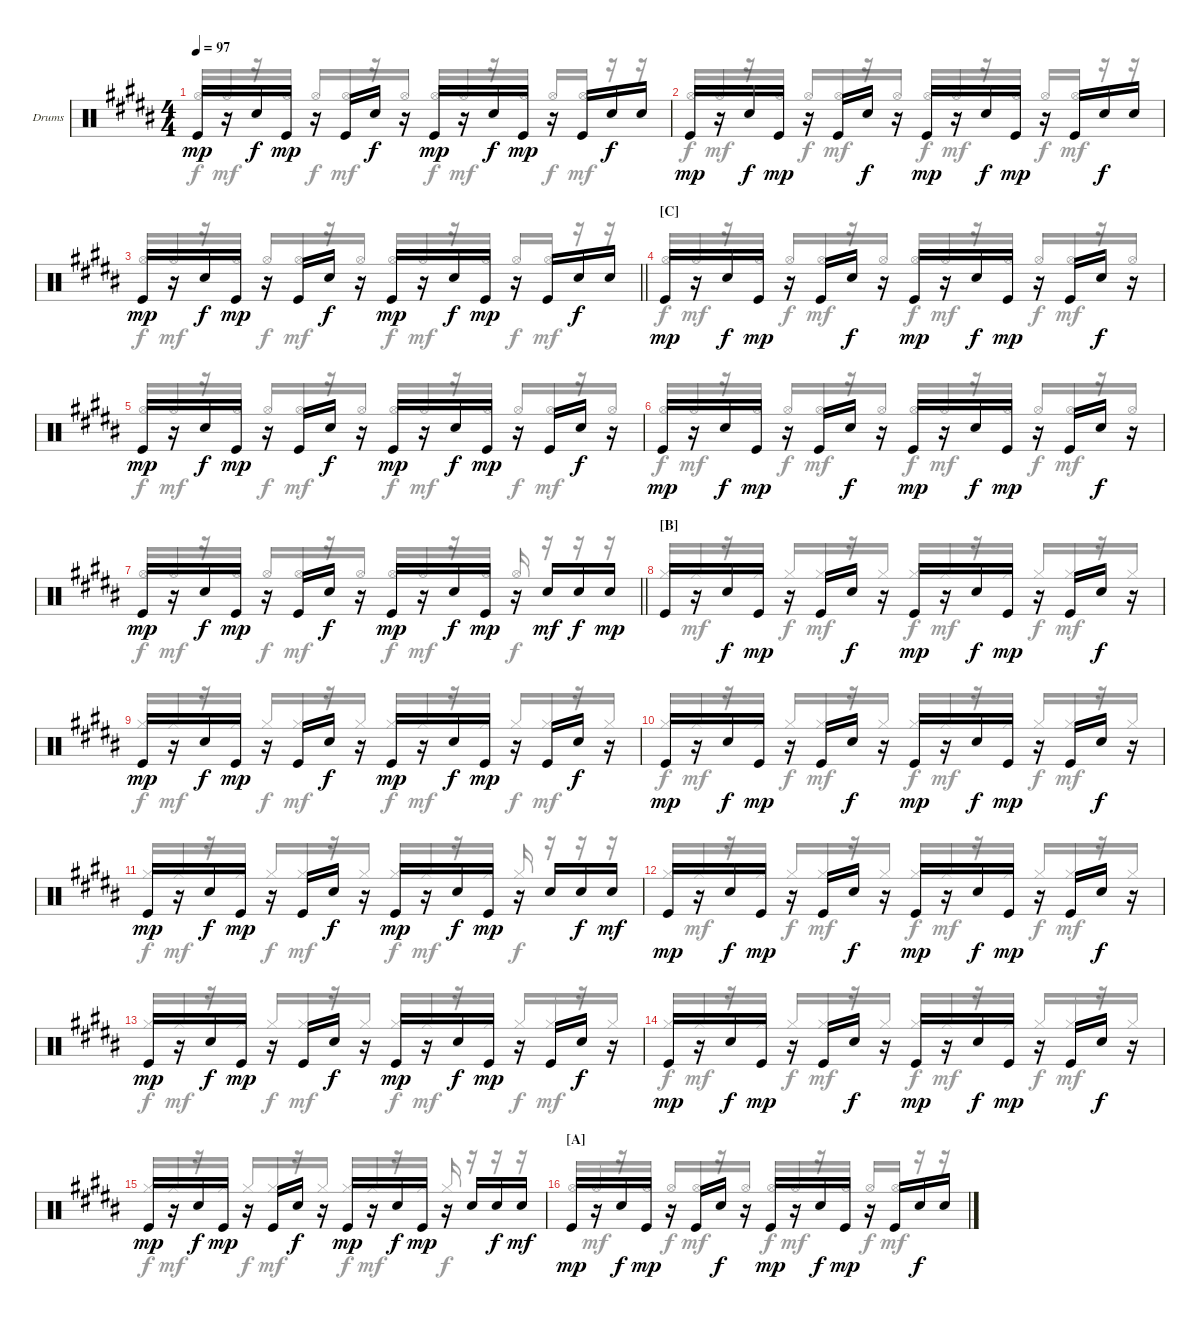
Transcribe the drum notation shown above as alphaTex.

\bracketExtendMode groupsimilarinstruments
\firstSystemTrackNameOrientation horizontal
\otherSystemsTrackNameOrientation horizontal
\track ("Fabrizio Moretti" "Drums") {instrument percussion}
\staff {score}
\articulation defaults
\voice
\ts (4 4)
\tempo 97
\clef neutral
\ks b "Kick (hit)".16{dy mp}
r.16 "Snare (hit) 2".16{dy f} "Kick (hit)".16{dy mp} r.16 "Kick (hit)".16 "Snare (hit) 2".16{dy f} r.16 "Kick (hit)".16{dy mp} r.16 "Snare (hit) 2".16{dy f} "Kick (hit)".16{dy mp} r.16 "Kick (hit)".16 "Snare (hit) 2".16{dy f} "Snare (hit) 2".16 |
"Kick (hit)".16{dy mp} r.16 "Snare (hit) 2".16{dy f} "Kick (hit)".16{dy mp} r.16 "Kick (hit)".16 "Snare (hit) 2".16{dy f} r.16 "Kick (hit)".16{dy mp} r.16 "Snare (hit) 2".16{dy f} "Kick (hit)".16{dy mp} r.16 "Kick (hit)".16 "Snare (hit) 2".16{dy f} "Snare (hit) 2".16 |
\barLineRight lightlight "Kick (hit)".16{dy mp}
r.16 "Snare (hit) 2".16{dy f} "Kick (hit)".16{dy mp} r.16 "Kick (hit)".16 "Snare (hit) 2".16{dy f} r.16 "Kick (hit)".16{dy mp} r.16 "Snare (hit) 2".16{dy f} "Kick (hit)".16{dy mp} r.16 "Kick (hit)".16 "Snare (hit) 2".16{dy f} "Snare (hit) 2".16 |
\section ("C" "")
"Kick (hit)".16{dy mp} r.16 "Snare (hit) 2".16{dy f} "Kick (hit)".16{dy mp} r.16 "Kick (hit)".16 "Snare (hit) 2".16{dy f} r.16 "Kick (hit)".16{dy mp} r.16 "Snare (hit) 2".16{dy f} "Kick (hit)".16{dy mp} r.16 "Kick (hit)".16 "Snare (hit) 2".16{dy f} r.16 |
"Kick (hit)".16{dy mp} r.16 "Snare (hit) 2".16{dy f} "Kick (hit)".16{dy mp} r.16 "Kick (hit)".16 "Snare (hit) 2".16{dy f} r.16 "Kick (hit)".16{dy mp} r.16 "Snare (hit) 2".16{dy f} "Kick (hit)".16{dy mp} r.16 "Kick (hit)".16 "Snare (hit) 2".16{dy f} r.16 |
"Kick (hit)".16{dy mp} r.16 "Snare (hit) 2".16{dy f} "Kick (hit)".16{dy mp} r.16 "Kick (hit)".16 "Snare (hit) 2".16{dy f} r.16 "Kick (hit)".16{dy mp} r.16 "Snare (hit) 2".16{dy f} "Kick (hit)".16{dy mp} r.16 "Kick (hit)".16 "Snare (hit) 2".16{dy f} r.16 |
\barLineRight lightlight "Kick (hit)".16{dy mp}
r.16 "Snare (hit) 2".16{dy f} "Kick (hit)".16{dy mp} r.16 "Kick (hit)".16 "Snare (hit) 2".16{dy f} r.16 "Kick (hit)".16{dy mp} r.16 "Snare (hit) 2".16{dy f} "Kick (hit)".16{dy mp} r.16 "Snare (hit) 2".16{dy mf} "Snare (hit) 2".16{dy f} "Snare (hit) 2".16{dy mp} |
\section ("B" "")
"Kick (hit)".16 r.16 "Snare (hit) 2".16{dy f} "Kick (hit)".16{dy mp} r.16 "Kick (hit)".16 "Snare (hit) 2".16{dy f} r.16 "Kick (hit)".16{dy mp} r.16 "Snare (hit) 2".16{dy f} "Kick (hit)".16{dy mp} r.16 "Kick (hit)".16 "Snare (hit) 2".16{dy f} r.16 |
"Kick (hit)".16{dy mp} r.16 "Snare (hit) 2".16{dy f} "Kick (hit)".16{dy mp} r.16 "Kick (hit)".16 "Snare (hit) 2".16{dy f} r.16 "Kick (hit)".16{dy mp} r.16 "Snare (hit) 2".16{dy f} "Kick (hit)".16{dy mp} r.16 "Kick (hit)".16 "Snare (hit) 2".16{dy f} r.16 |
"Kick (hit)".16{dy mp} r.16 "Snare (hit) 2".16{dy f} "Kick (hit)".16{dy mp} r.16 "Kick (hit)".16 "Snare (hit) 2".16{dy f} r.16 "Kick (hit)".16{dy mp} r.16 "Snare (hit) 2".16{dy f} "Kick (hit)".16{dy mp} r.16 "Kick (hit)".16 "Snare (hit) 2".16{dy f} r.16 |
"Kick (hit)".16{dy mp} r.16 "Snare (hit) 2".16{dy f} "Kick (hit)".16{dy mp} r.16 "Kick (hit)".16 "Snare (hit) 2".16{dy f} r.16 "Kick (hit)".16{dy mp} r.16 "Snare (hit) 2".16{dy f} "Kick (hit)".16{dy mp} r.16 "Snare (hit) 2".16 "Snare (hit) 2".16{dy f} "Snare (hit) 2".16{dy mf} |
"Kick (hit)".16{dy mp} r.16 "Snare (hit) 2".16{dy f} "Kick (hit)".16{dy mp} r.16 "Kick (hit)".16 "Snare (hit) 2".16{dy f} r.16 "Kick (hit)".16{dy mp} r.16 "Snare (hit) 2".16{dy f} "Kick (hit)".16{dy mp} r.16 "Kick (hit)".16 "Snare (hit) 2".16{dy f} r.16 |
"Kick (hit)".16{dy mp} r.16 "Snare (hit) 2".16{dy f} "Kick (hit)".16{dy mp} r.16 "Kick (hit)".16 "Snare (hit) 2".16{dy f} r.16 "Kick (hit)".16{dy mp} r.16 "Snare (hit) 2".16{dy f} "Kick (hit)".16{dy mp} r.16 "Kick (hit)".16 "Snare (hit) 2".16{dy f} r.16 |
"Kick (hit)".16{dy mp} r.16 "Snare (hit) 2".16{dy f} "Kick (hit)".16{dy mp} r.16 "Kick (hit)".16 "Snare (hit) 2".16{dy f} r.16 "Kick (hit)".16{dy mp} r.16 "Snare (hit) 2".16{dy f} "Kick (hit)".16{dy mp} r.16 "Kick (hit)".16 "Snare (hit) 2".16{dy f} r.16 |
"Kick (hit)".16{dy mp} r.16 "Snare (hit) 2".16{dy f} "Kick (hit)".16{dy mp} r.16 "Kick (hit)".16 "Snare (hit) 2".16{dy f} r.16 "Kick (hit)".16{dy mp} r.16 "Snare (hit) 2".16{dy f} "Kick (hit)".16{dy mp} r.16 "Snare (hit) 2".16 "Snare (hit) 2".16{dy f} "Snare (hit) 2".16{dy mf} |
\section ("A" "")
"Kick (hit)".16{dy mp} r.16 "Snare (hit) 2".16{dy f} "Kick (hit)".16{dy mp} r.16 "Kick (hit)".16 "Snare (hit) 2".16{dy f} r.16 "Kick (hit)".16{dy mp} r.16 "Snare (hit) 2".16{dy f} "Kick (hit)".16{dy mp} r.16 "Kick (hit)".16 "Snare (hit) 2".16{dy f} "Snare (hit) 2".16
\voice
\clef neutral
\ottava regular
\simile none
\ks b "Hi-Hat (open)".16{dy f beam invert} "Hi-Hat (open)".16{dy mf}
r.16 "Hi-Hat (open)".16 "Hi-Hat (open)".16{dy f beam invert} "Hi-Hat (open)".16{dy mf} r.16 "Hi-Hat (open)".16 "Hi-Hat (open)".16{dy f beam invert} "Hi-Hat (open)".16{dy mf} r.16 "Hi-Hat (open)".16 "Hi-Hat (open)".16{dy f beam invert} "Hi-Hat (open)".16{dy mf} r.16 r.16 |
"Hi-Hat (open)".16{dy f beam invert} "Hi-Hat (open)".16{dy mf} r.16 "Hi-Hat (open)".16 "Hi-Hat (open)".16{dy f beam invert} "Hi-Hat (open)".16{dy mf} r.16 "Hi-Hat (open)".16 "Hi-Hat (open)".16{dy f beam invert} "Hi-Hat (open)".16{dy mf} r.16 "Hi-Hat (open)".16 "Hi-Hat (open)".16{dy f beam invert} "Hi-Hat (open)".16{dy mf} r.16 r.16 |
\barLineRight lightlight "Hi-Hat (open)".16{dy f beam invert} "Hi-Hat (open)".16{dy mf}
r.16 "Hi-Hat (open)".16 "Hi-Hat (open)".16{dy f beam invert} "Hi-Hat (open)".16{dy mf} r.16 "Hi-Hat (open)".16 "Hi-Hat (open)".16{dy f beam invert} "Hi-Hat (open)".16{dy mf} r.16 "Hi-Hat (open)".16 "Hi-Hat (open)".16{dy f beam invert} "Hi-Hat (open)".16{dy mf} r.16 r.16 |
"Hi-Hat (open)".16{dy f beam invert} "Hi-Hat (open)".16{dy mf} r.16 "Hi-Hat (open)".16 "Hi-Hat (open)".16{dy f beam invert} "Hi-Hat (open)".16{dy mf} r.16 "Hi-Hat (open)".16 "Hi-Hat (open)".16{dy f beam invert} "Hi-Hat (open)".16{dy mf} r.16 "Hi-Hat (open)".16 "Hi-Hat (open)".16{dy f beam invert} "Hi-Hat (open)".16{dy mf} r.16 "Hi-Hat (open)".16 |
"Hi-Hat (open)".16{dy f beam invert} "Hi-Hat (open)".16{dy mf} r.16 "Hi-Hat (open)".16 "Hi-Hat (open)".16{dy f beam invert} "Hi-Hat (open)".16{dy mf} r.16 "Hi-Hat (open)".16 "Hi-Hat (open)".16{dy f beam invert} "Hi-Hat (open)".16{dy mf} r.16 "Hi-Hat (open)".16 "Hi-Hat (open)".16{dy f beam invert} "Hi-Hat (open)".16{dy mf} r.16 "Hi-Hat (open)".16 |
"Hi-Hat (open)".16{dy f beam invert} "Hi-Hat (open)".16{dy mf} r.16 "Hi-Hat (open)".16 "Hi-Hat (open)".16{dy f beam invert} "Hi-Hat (open)".16{dy mf} r.16 "Hi-Hat (open)".16 "Hi-Hat (open)".16{dy f beam invert} "Hi-Hat (open)".16{dy mf} r.16 "Hi-Hat (open)".16 "Hi-Hat (open)".16{dy f beam invert} "Hi-Hat (open)".16{dy mf} r.16 "Hi-Hat (open)".16 |
\barLineRight lightlight "Hi-Hat (open)".16{dy f beam invert} "Hi-Hat (open)".16{dy mf}
r.16 "Hi-Hat (open)".16 "Hi-Hat (open)".16{dy f beam invert} "Hi-Hat (open)".16{dy mf} r.16 "Hi-Hat (open)".16 "Hi-Hat (open)".16{dy f beam invert} "Hi-Hat (open)".16{dy mf} r.16 "Hi-Hat (open)".16 "Hi-Hat (open)".16{dy f beam invert} r.16 r.16 r.16 |
"Hi-Hat (closed)".16{beam invert} "Hi-Hat (closed)".16{dy mf} r.16 "Hi-Hat (closed)".16 "Hi-Hat (closed)".16{dy f beam invert} "Hi-Hat (closed)".16{dy mf} r.16 "Hi-Hat (closed)".16 "Hi-Hat (closed)".16{dy f beam invert} "Hi-Hat (closed)".16{dy mf} r.16 "Hi-Hat (closed)".16 "Hi-Hat (closed)".16{dy f beam invert} "Hi-Hat (closed)".16{dy mf} r.16 "Hi-Hat (closed)".16 |
"Hi-Hat (closed)".16{dy f beam invert} "Hi-Hat (closed)".16{dy mf} r.16 "Hi-Hat (closed)".16 "Hi-Hat (closed)".16{dy f beam invert} "Hi-Hat (closed)".16{dy mf} r.16 "Hi-Hat (closed)".16 "Hi-Hat (closed)".16{dy f beam invert} "Hi-Hat (closed)".16{dy mf} r.16 "Hi-Hat (closed)".16 "Hi-Hat (closed)".16{dy f beam invert} "Hi-Hat (closed)".16{dy mf} r.16 "Hi-Hat (closed)".16 |
"Hi-Hat (closed)".16{dy f beam invert} "Hi-Hat (closed)".16{dy mf beam invert} r.16{beam invert} "Hi-Hat (closed)".16{beam invert} "Hi-Hat (closed)".16{dy f beam invert} "Hi-Hat (closed)".16{dy mf} r.16 "Hi-Hat (closed)".16 "Hi-Hat (closed)".16{dy f beam invert} "Hi-Hat (closed)".16{dy mf} r.16 "Hi-Hat (closed)".16 "Hi-Hat (closed)".16{dy f beam invert} "Hi-Hat (closed)".16{dy mf} r.16 "Hi-Hat (closed)".16 |
"Hi-Hat (closed)".16{dy f beam invert} "Hi-Hat (closed)".16{dy mf} r.16 "Hi-Hat (closed)".16 "Hi-Hat (closed)".16{dy f beam invert} "Hi-Hat (closed)".16{dy mf} r.16 "Hi-Hat (closed)".16 "Hi-Hat (closed)".16{dy f beam invert} "Hi-Hat (closed)".16{dy mf} r.16 "Hi-Hat (closed)".16 "Hi-Hat (closed)".16{dy f beam invert} r.16 r.16 r.16 |
"Hi-Hat (closed)".16{beam invert} "Hi-Hat (closed)".16{dy mf} r.16 "Hi-Hat (closed)".16 "Hi-Hat (closed)".16{dy f beam invert} "Hi-Hat (closed)".16{dy mf} r.16 "Hi-Hat (closed)".16 "Hi-Hat (closed)".16{dy f beam invert} "Hi-Hat (closed)".16{dy mf} r.16 "Hi-Hat (closed)".16 "Hi-Hat (closed)".16{dy f beam invert} "Hi-Hat (closed)".16{dy mf} r.16 "Hi-Hat (closed)".16 |
"Hi-Hat (closed)".16{dy f beam invert} "Hi-Hat (closed)".16{dy mf} r.16 "Hi-Hat (closed)".16 "Hi-Hat (closed)".16{dy f beam invert} "Hi-Hat (closed)".16{dy mf} r.16 "Hi-Hat (closed)".16 "Hi-Hat (closed)".16{dy f beam invert} "Hi-Hat (closed)".16{dy mf} r.16 "Hi-Hat (closed)".16 "Hi-Hat (closed)".16{dy f beam invert} "Hi-Hat (closed)".16{dy mf} r.16 "Hi-Hat (closed)".16 |
"Hi-Hat (closed)".16{dy f beam invert} "Hi-Hat (closed)".16{dy mf} r.16 "Hi-Hat (closed)".16 "Hi-Hat (closed)".16{dy f beam invert} "Hi-Hat (closed)".16{dy mf} r.16 "Hi-Hat (closed)".16 "Hi-Hat (closed)".16{dy f beam invert} "Hi-Hat (closed)".16{dy mf} r.16 "Hi-Hat (closed)".16 "Hi-Hat (closed)".16{dy f beam invert} "Hi-Hat (closed)".16{dy mf} r.16 "Hi-Hat (closed)".16 |
"Hi-Hat (closed)".16{dy f beam invert} "Hi-Hat (closed)".16{dy mf} r.16 "Hi-Hat (closed)".16 "Hi-Hat (closed)".16{dy f beam invert} "Hi-Hat (closed)".16{dy mf} r.16 "Hi-Hat (closed)".16 "Hi-Hat (closed)".16{dy f beam invert} "Hi-Hat (closed)".16{dy mf} r.16 "Hi-Hat (closed)".16 "Hi-Hat (closed)".16{dy f beam invert} r.16 r.16 r.16 |
"Hi-Hat (open)".16{beam invert} "Hi-Hat (open)".16{dy mf} r.16 "Hi-Hat (open)".16 "Hi-Hat (open)".16{dy f beam invert} "Hi-Hat (open)".16{dy mf} r.16 "Hi-Hat (open)".16 "Hi-Hat (open)".16{dy f beam invert} "Hi-Hat (open)".16{dy mf} r.16 "Hi-Hat (open)".16 "Hi-Hat (open)".16{dy f beam invert} "Hi-Hat (open)".16{dy mf} r.16 r.16
